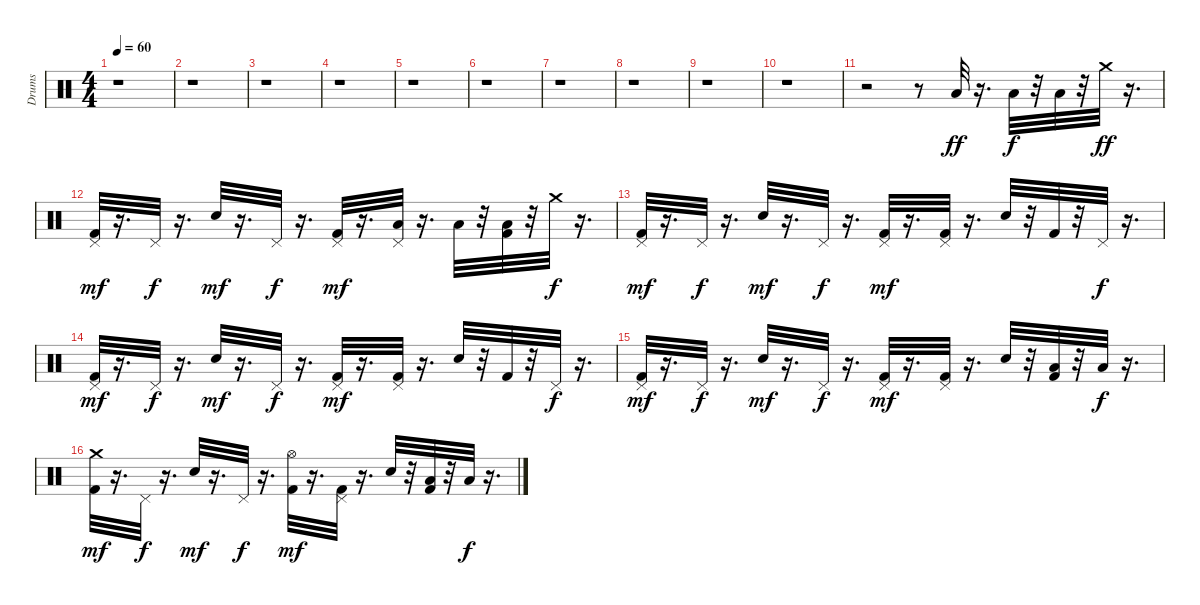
\track ("Drums" "Drums") {instrument percussion}
\staff {score}
\articulation defaults
\ts (4 4)
\tempo 60
\clef neutral
\ks c
r.1{dy ff} |
r.1 |
r.1 |
r.1 |
r.1 |
r.1 |
r.1 |
r.1 |
r.1 |
r.1 |
r.2 r.8 "Low Floor Tom (hit)".32 r.16{d} "Low Floor Tom (hit)".32{dy f} r.32 "Low Floor Tom (hit)".32 r.32 "Crash medium (hit)".32{dy ff} r.16{d} |
("Pedal Hi-Hat (hit)" "Kick (hit) 2").32{dy mf} r.16{d} "Pedal Hi-Hat (hit)".32{dy f} r.16{d} "Electric Snare (hit)".32{dy mf} r.16{d} "Pedal Hi-Hat (hit)".32{dy f} r.16{d} ("Pedal Hi-Hat (hit)" "Kick (hit) 2").32{dy mf} r.16{d} ("Low Floor Tom (hit)" "Pedal Hi-Hat (hit)").32 r.16{d} "Low Floor Tom (hit)".32 r.32 ("Low Floor Tom (hit)" "Kick (hit) 2").32 r.32 "Crash medium (hit)".32{dy f} r.16{d} |
("Pedal Hi-Hat (hit)" "Kick (hit) 2").32{dy mf} r.16{d} "Pedal Hi-Hat (hit)".32{dy f} r.16{d} "Electric Snare (hit)".32{dy mf} r.16{d} "Pedal Hi-Hat (hit)".32{dy f} r.16{d} ("Pedal Hi-Hat (hit)" "Kick (hit) 2").32{dy mf} r.16{d} ("Kick (hit) 2" "Pedal Hi-Hat (hit)").32 r.16{d} "Electric Snare (hit)".32 r.32 "Kick (hit) 2".32 r.32 "Pedal Hi-Hat (hit)".32{dy f} r.16{d} |
("Pedal Hi-Hat (hit)" "Kick (hit) 2").32{dy mf} r.16{d} "Pedal Hi-Hat (hit)".32{dy f} r.16{d} "Electric Snare (hit)".32{dy mf} r.16{d} "Pedal Hi-Hat (hit)".32{dy f} r.16{d} ("Pedal Hi-Hat (hit)" "Kick (hit) 2").32{dy mf} r.16{d} ("Kick (hit) 2" "Pedal Hi-Hat (hit)").32 r.16{d} "Electric Snare (hit)".32 r.32 "Kick (hit) 2".32 r.32 "Pedal Hi-Hat (hit)".32{dy f} r.16{d} |
("Pedal Hi-Hat (hit)" "Kick (hit) 2").32{dy mf} r.16{d} "Pedal Hi-Hat (hit)".32{dy f} r.16{d} "Electric Snare (hit)".32{dy mf} r.16{d} "Pedal Hi-Hat (hit)".32{dy f} r.16{d} ("Pedal Hi-Hat (hit)" "Kick (hit) 2").32{dy mf} r.16{d} ("Kick (hit) 2" "Pedal Hi-Hat (hit)").32 r.16{d} "Electric Snare (hit)".32 r.32 ("Low Floor Tom (hit)" "Kick (hit) 2").32 r.32 "Low Floor Tom (hit)".32{dy f} r.16{d} |
("Crash medium (hit)" "Kick (hit) 2").32{dy mf} r.16{d} "Pedal Hi-Hat (hit)".32{dy f} r.16{d} "Electric Snare (hit)".32{dy mf} r.16{d} "Pedal Hi-Hat (hit)".32{dy f} r.16{d} ("Hi-Hat (open)" "Kick (hit) 2").32{dy mf} r.16{d} ("Kick (hit) 2" "Pedal Hi-Hat (hit)").32 r.16{d} "Electric Snare (hit)".32 r.32 ("Low Floor Tom (hit)" "Kick (hit) 2").32 r.32 "Low Floor Tom (hit)".32{dy f} r.16{d}
